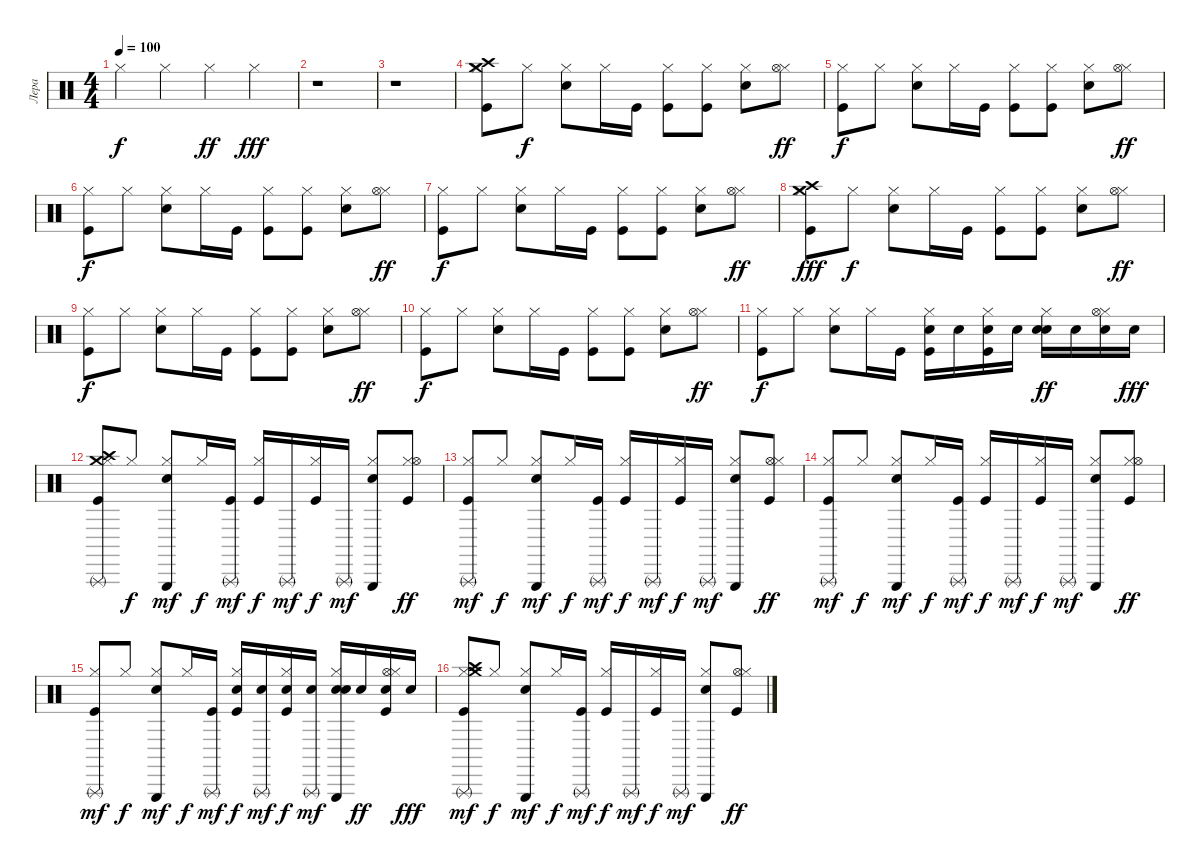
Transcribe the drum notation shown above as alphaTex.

\track ("Лера" "Лера") {instrument percussion}
\staff {score}
\articulation defaults
\ts (4 4)
\tempo 100
\tempo 85
\tempo 100
\clef neutral
\ks c "Hi-Hat (closed)".4{dy f} "Hi-Hat (closed)".4 "Hi-Hat (closed)".4{dy ff} "Hi-Hat (closed)".4{dy fff}
|
r.1 |
r.1 |
("Kick (hit)" "Crash medium (hit)" "Crash high (hit)" "Hi-Hat (closed)").8 "Hi-Hat (closed)".8{dy f} ("Electric Snare (hit)" "Hi-Hat (closed)").8 "Hi-Hat (closed)".16 "Kick (hit)".16 ("Hi-Hat (closed)" "Kick (hit)").8 ("Kick (hit)" "Hi-Hat (closed)").8 ("Electric Snare (hit)" "Hi-Hat (closed)").8 ("Hi-Hat (closed)" "Hi-Hat (open)").8{dy ff} |
("Kick (hit)" "Hi-Hat (closed)").8{dy f} "Hi-Hat (closed)".8 ("Electric Snare (hit)" "Hi-Hat (closed)").8 "Hi-Hat (closed)".16 "Kick (hit)".16 ("Hi-Hat (closed)" "Kick (hit)").8 ("Kick (hit)" "Hi-Hat (closed)").8 ("Electric Snare (hit)" "Hi-Hat (closed)").8 ("Hi-Hat (closed)" "Hi-Hat (open)").8{dy ff} |
("Kick (hit)" "Hi-Hat (closed)").8{dy f} "Hi-Hat (closed)".8 ("Electric Snare (hit)" "Hi-Hat (closed)").8 "Hi-Hat (closed)".16 "Kick (hit)".16 ("Hi-Hat (closed)" "Kick (hit)").8 ("Kick (hit)" "Hi-Hat (closed)").8 ("Electric Snare (hit)" "Hi-Hat (closed)").8 ("Hi-Hat (closed)" "Hi-Hat (open)").8{dy ff} |
("Kick (hit)" "Hi-Hat (closed)").8{dy f} "Hi-Hat (closed)".8 ("Electric Snare (hit)" "Hi-Hat (closed)").8 "Hi-Hat (closed)".16 "Kick (hit)".16 ("Hi-Hat (closed)" "Kick (hit)").8 ("Kick (hit)" "Hi-Hat (closed)").8 ("Electric Snare (hit)" "Hi-Hat (closed)").8 ("Hi-Hat (closed)" "Hi-Hat (open)").8{dy ff} |
("Crash medium (hit)" "Crash high (hit)" "Kick (hit)" "Hi-Hat (closed)").8{dy fff} "Hi-Hat (closed)".8{dy f} ("Electric Snare (hit)" "Hi-Hat (closed)").8 "Hi-Hat (closed)".16 "Kick (hit)".16 ("Hi-Hat (closed)" "Kick (hit)").8 ("Kick (hit)" "Hi-Hat (closed)").8 ("Electric Snare (hit)" "Hi-Hat (closed)").8 ("Hi-Hat (closed)" "Hi-Hat (open)").8{dy ff} |
("Kick (hit)" "Hi-Hat (closed)").8{dy f} "Hi-Hat (closed)".8 ("Electric Snare (hit)" "Hi-Hat (closed)").8 "Hi-Hat (closed)".16 "Kick (hit)".16 ("Hi-Hat (closed)" "Kick (hit)").8 ("Kick (hit)" "Hi-Hat (closed)").8 ("Electric Snare (hit)" "Hi-Hat (closed)").8 ("Hi-Hat (closed)" "Hi-Hat (open)").8{dy ff} |
("Kick (hit)" "Hi-Hat (closed)").8{dy f} "Hi-Hat (closed)".8 ("Electric Snare (hit)" "Hi-Hat (closed)").8 "Hi-Hat (closed)".16 "Kick (hit)".16 ("Hi-Hat (closed)" "Kick (hit)").8 ("Kick (hit)" "Hi-Hat (closed)").8 ("Electric Snare (hit)" "Hi-Hat (closed)").8 ("Hi-Hat (closed)" "Hi-Hat (open)").8{dy ff} |
("Kick (hit)" "Hi-Hat (closed)").8{dy f} "Hi-Hat (closed)".8 ("Electric Snare (hit)" "Hi-Hat (closed)").8 "Hi-Hat (closed)".16 "Kick (hit)".16 ("Snare (hit) 2" "Hi-Hat (closed)" "Kick (hit)").16 "Snare (hit) 2".16 ("Snare (hit) 2" "Kick (hit)" "Hi-Hat (closed)").16 "Snare (hit) 2".16 ("Snare (hit) 2" "Electric Snare (hit)" "Hi-Hat (closed)").16{dy ff} "Snare (hit) 2".16 ("Snare (hit) 2" "Hi-Hat (closed)" "Hi-Hat (open)").16 "Snare (hit) 2".16{dy fff} |
("Triangle (rnute)" "Kick (hit)" "Crash medium (hit)" "Crash high (hit)" "Hi-Hat (closed)").8 "Hi-Hat (closed)".8{dy f} ("Triangle (hit)" "Electric Snare (hit)" "Hi-Hat (closed)").8{dy mf} "Hi-Hat (closed)".16{dy f} ("Kick (hit)" "Triangle (rnute)").16{dy mf} ("Hi-Hat (closed)" "Kick (hit)").16{dy f} "Triangle (rnute)".16{dy mf} ("Kick (hit)" "Hi-Hat (closed)").16{dy f} "Triangle (rnute)".16{dy mf} ("Triangle (hit)" "Electric Snare (hit)" "Hi-Hat (closed)").8 ("Kick (hit)" "Hi-Hat (closed)" "Hi-Hat (open)").8{dy ff} |
("Kick (hit)" "Hi-Hat (closed)" "Triangle (rnute)").8{dy mf} "Hi-Hat (closed)".8{dy f} ("Electric Snare (hit)" "Triangle (hit)" "Hi-Hat (closed)").8{dy mf} "Hi-Hat (closed)".16{dy f} ("Triangle (rnute)" "Kick (hit)").16{dy mf} ("Hi-Hat (closed)" "Kick (hit)").16{dy f} "Triangle (rnute)".16{dy mf} ("Kick (hit)" "Hi-Hat (closed)").16{dy f} "Triangle (rnute)".16{dy mf} ("Electric Snare (hit)" "Hi-Hat (closed)" "Triangle (hit)").8 ("Kick (hit)" "Hi-Hat (open)" "Hi-Hat (closed)").8{dy ff} |
("Kick (hit)" "Hi-Hat (closed)" "Triangle (rnute)").8{dy mf} "Hi-Hat (closed)".8{dy f} ("Electric Snare (hit)" "Triangle (hit)" "Hi-Hat (closed)").8{dy mf} "Hi-Hat (closed)".16{dy f} ("Kick (hit)" "Triangle (rnute)").16{dy mf} ("Hi-Hat (closed)" "Kick (hit)").16{dy f} "Triangle (rnute)".16{dy mf} ("Kick (hit)" "Hi-Hat (closed)").16{dy f} "Triangle (rnute)".16{dy mf} ("Electric Snare (hit)" "Hi-Hat (closed)" "Triangle (hit)").8 ("Hi-Hat (closed)" "Kick (hit)" "Hi-Hat (open)").8{dy ff} |
("Hi-Hat (closed)" "Kick (hit)" "Triangle (rnute)").8{dy mf} "Hi-Hat (closed)".8{dy f} ("Hi-Hat (closed)" "Electric Snare (hit)" "Triangle (hit)").8{dy mf} "Hi-Hat (closed)".16{dy f} ("Kick (hit)" "Triangle (rnute)").16{dy mf} ("Kick (hit)" "Snare (hit) 2" "Hi-Hat (closed)").16{dy f} ("Triangle (rnute)" "Snare (hit) 2").16{dy mf} ("Snare (hit) 2" "Hi-Hat (closed)" "Kick (hit)").16{dy f} ("Triangle (rnute)" "Snare (hit) 2").16{dy mf} ("Snare (hit) 2" "Electric Snare (hit)" "Hi-Hat (closed)" "Triangle (hit)").16 "Snare (hit) 2".16{dy ff} ("Kick (hit)" "Hi-Hat (open)" "Hi-Hat (closed)" "Snare (hit) 2").16 "Snare (hit) 2".16{dy fff} |
("Hi-Hat (closed)" "Crash medium (hit)" "Crash high (hit)" "Kick (hit)" "Triangle (rnute)").8{dy mf} "Hi-Hat (closed)".8{dy f} ("Hi-Hat (closed)" "Triangle (hit)" "Electric Snare (hit)").8{dy mf} "Hi-Hat (closed)".16{dy f} ("Kick (hit)" "Triangle (rnute)").16{dy mf} ("Kick (hit)" "Hi-Hat (closed)").16{dy f} "Triangle (rnute)".16{dy mf} ("Kick (hit)" "Hi-Hat (closed)").16{dy f} "Triangle (rnute)".16{dy mf} ("Hi-Hat (closed)" "Electric Snare (hit)" "Triangle (hit)").8 ("Hi-Hat (open)" "Hi-Hat (closed)" "Kick (hit)").8{dy ff}
